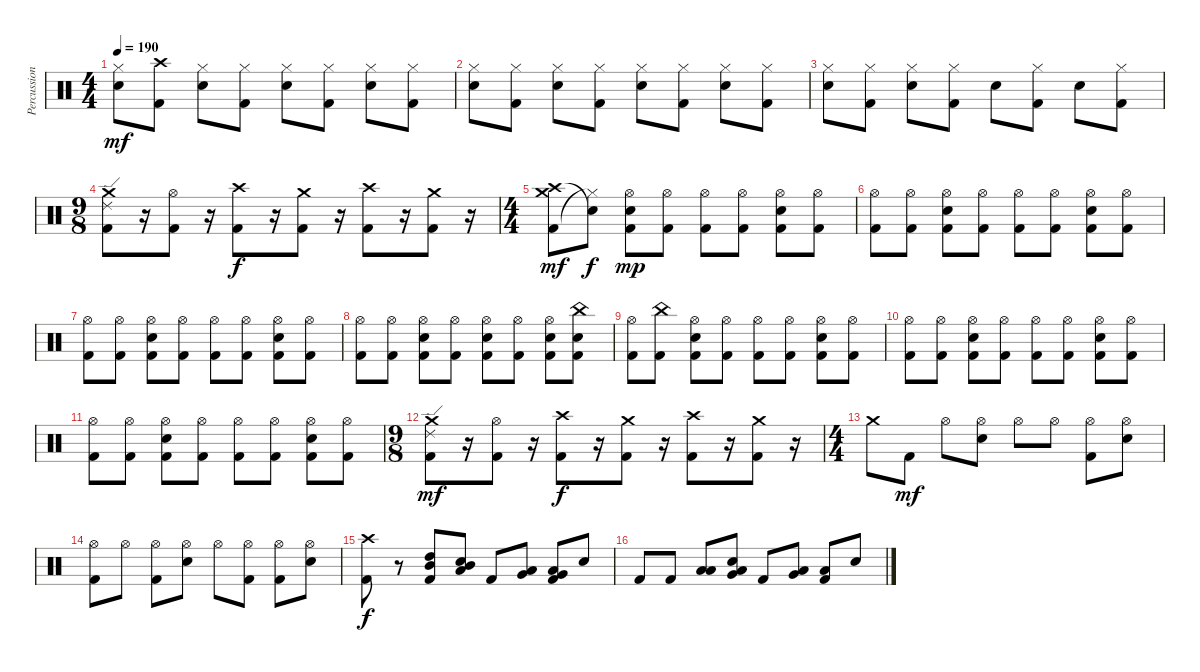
\track ("Percussion" "Percussion") {instrument percussion}
\staff {score}
\articulation defaults
\ts (4 4)
\tempo 190
\clef neutral
\ks c
("Snare (hit) 2" "Hi-Hat (closed)").8{dy mf} ("Kick (hit) 2" "Crash high (hit)").8 ("Snare (hit) 2" "Hi-Hat (closed)").8 ("Kick (hit) 2" "Hi-Hat (closed)").8 ("Snare (hit) 2" "Hi-Hat (closed)").8 ("Kick (hit) 2" "Hi-Hat (closed)").8 ("Snare (hit) 2" "Hi-Hat (closed)").8 ("Kick (hit) 2" "Hi-Hat (closed)").8 |
("Snare (hit) 2" "Hi-Hat (closed)").8 ("Kick (hit) 2" "Hi-Hat (closed)").8 ("Snare (hit) 2" "Hi-Hat (closed)").8 ("Kick (hit) 2" "Hi-Hat (closed)").8 ("Snare (hit) 2" "Hi-Hat (closed)").8 ("Kick (hit) 2" "Hi-Hat (closed)").8 ("Snare (hit) 2" "Hi-Hat (closed)").8 ("Kick (hit) 2" "Hi-Hat (closed)").8 |
("Snare (hit) 2" "Hi-Hat (closed)").8 ("Kick (hit) 2" "Hi-Hat (closed)").8 ("Snare (hit) 2" "Hi-Hat (closed)").8 ("Kick (hit) 2" "Hi-Hat (closed)").8 "Snare (hit) 2".8 ("Kick (hit) 2" "Hi-Hat (closed)").8 "Snare (hit) 2".8 ("Kick (hit) 2" "Hi-Hat (closed)").8 |
\ts (9 8)
("Kick (hit) 2" "Crash medium (hit)" "Ride (edge) 2").8 r.16 ("Kick (hit) 2" "Hi-Hat (open)").8 r.16 ("Kick (hit) 2" "Crash high (hit)").8{dy f} r.16 ("Kick (hit) 2" "Crash medium (hit)").8 r.16 ("Kick (hit) 2" "Crash high (hit)").8 r.16 ("Kick (hit) 2" "Crash medium (hit)").8 r.16 |
\ts (4 4)
("Kick (hit) 2" "Crash high (hit)" "Crash medium (hit)").8{dy mf} ("Hi-Hat (closed)"{t} "Snare (hit)"{t}).8{dy f} ("Kick (hit) 2" "Snare (hit) 2" "Hi-Hat (open)").8{dy mp} ("Kick (hit) 2" "Hi-Hat (open)").8 ("Kick (hit) 2" "Hi-Hat (open)").8 ("Kick (hit) 2" "Hi-Hat (open)").8 ("Kick (hit) 2" "Snare (hit) 2" "Hi-Hat (open)").8 ("Kick (hit) 2" "Hi-Hat (open)").8 |
("Kick (hit) 2" "Hi-Hat (open)").8 ("Kick (hit) 2" "Hi-Hat (open)").8 ("Kick (hit) 2" "Snare (hit) 2" "Hi-Hat (open)").8 ("Kick (hit) 2" "Hi-Hat (open)").8 ("Kick (hit) 2" "Hi-Hat (open)").8 ("Kick (hit) 2" "Hi-Hat (open)").8 ("Kick (hit) 2" "Snare (hit) 2" "Hi-Hat (open)").8 ("Kick (hit) 2" "Hi-Hat (open)").8 |
("Kick (hit) 2" "Hi-Hat (open)").8 ("Kick (hit) 2" "Hi-Hat (open)").8 ("Kick (hit) 2" "Snare (hit) 2" "Hi-Hat (open)").8 ("Kick (hit) 2" "Hi-Hat (open)").8 ("Kick (hit) 2" "Hi-Hat (open)").8 ("Kick (hit) 2" "Hi-Hat (open)").8 ("Kick (hit) 2" "Snare (hit) 2" "Hi-Hat (open)").8 ("Kick (hit) 2" "Hi-Hat (open)").8 |
("Kick (hit) 2" "Hi-Hat (open)").8 ("Kick (hit) 2" "Hi-Hat (open)").8 ("Kick (hit) 2" "Snare (hit) 2" "Hi-Hat (open)").8 ("Kick (hit) 2" "Hi-Hat (open)").8 ("Kick (hit) 2" "Snare (hit) 2" "Hi-Hat (open)").8 ("Kick (hit) 2" "Hi-Hat (open)").8 ("Kick (hit) 2" "Snare (hit) 2" "Hi-Hat (open)").8 ("Kick (hit) 2" "Snare (hit) 2" "China (hit)").8 |
("Kick (hit) 2" "Hi-Hat (open)").8 ("Kick (hit) 2" "China (hit)").8 ("Kick (hit) 2" "Snare (hit) 2" "Hi-Hat (open)").8 ("Kick (hit) 2" "Hi-Hat (open)").8 ("Kick (hit) 2" "Hi-Hat (open)").8 ("Kick (hit) 2" "Hi-Hat (open)").8 ("Kick (hit) 2" "Snare (hit) 2" "Hi-Hat (open)").8 ("Kick (hit) 2" "Hi-Hat (open)").8 |
("Kick (hit) 2" "Hi-Hat (open)").8 ("Kick (hit) 2" "Hi-Hat (open)").8 ("Kick (hit) 2" "Snare (hit) 2" "Hi-Hat (open)").8 ("Kick (hit) 2" "Hi-Hat (open)").8 ("Kick (hit) 2" "Hi-Hat (open)").8 ("Kick (hit) 2" "Hi-Hat (open)").8 ("Kick (hit) 2" "Snare (hit) 2" "Hi-Hat (open)").8 ("Kick (hit) 2" "Hi-Hat (open)").8 |
("Kick (hit) 2" "Hi-Hat (open)").8 ("Kick (hit) 2" "Hi-Hat (open)").8 ("Kick (hit) 2" "Snare (hit) 2" "Hi-Hat (open)").8 ("Kick (hit) 2" "Hi-Hat (open)").8 ("Kick (hit) 2" "Hi-Hat (open)").8 ("Kick (hit) 2" "Hi-Hat (open)").8 ("Kick (hit) 2" "Snare (hit) 2" "Hi-Hat (open)").8 ("Kick (hit) 2" "Hi-Hat (open)").8 |
\ts (9 8)
("Kick (hit) 2" "Crash medium (hit)" "Ride (edge) 2").8{dy mf} r.16 ("Kick (hit) 2" "Hi-Hat (open)").8 r.16 ("Kick (hit) 2" "Crash high (hit)").8{dy f} r.16 ("Kick (hit) 2" "Crash medium (hit)").8 r.16 ("Kick (hit) 2" "Crash high (hit)").8 r.16 ("Kick (hit) 2" "Crash medium (hit)").8 r.16 |
\ts (4 4)
"Crash medium (hit)".8 "Kick (hit) 2".8{dy mf} "Hi-Hat (open)".8 ("Snare (hit) 2" "Hi-Hat (open)").8 "Hi-Hat (open)".8 "Hi-Hat (open)".8 ("Kick (hit) 2" "Hi-Hat (open)").8 ("Snare (hit) 2" "Hi-Hat (open)").8 |
("Kick (hit) 2" "Hi-Hat (open)").8 "Hi-Hat (open)".8 ("Kick (hit) 2" "Hi-Hat (open)").8 ("Snare (hit) 2" "Hi-Hat (open)").8 "Hi-Hat (open)".8 ("Kick (hit) 2" "Hi-Hat (open)").8 ("Kick (hit) 2" "Hi-Hat (open)").8 ("Snare (hit) 2" "Hi-Hat (open)").8 |
("Kick (hit) 2" "Crash high (hit)").8{dy f} r.8 ("Kick (hit) 2" "Mid Tom (hit)" "High Tom (hit)").8 ("Low Tom (hit)" "Mid Tom (hit)" "Snare (hit) 2").8 "Kick (hit) 2".8 ("Very Low Tom (hit)" "Low Tom (hit)").8 ("Kick (hit) 2" "Low Floor Tom (hit)" "Very Low Tom (hit)").8 "Snare (hit) 2".8 |
"Kick (hit) 2".8 "Kick (hit) 2".8 ("Low Tom (hit)" "Low Floor Tom (hit)").8 ("Very Low Tom (hit)" "Low Tom (hit)" "Snare (hit) 2").8 "Kick (hit) 2".8 ("Low Floor Tom (hit)" "Very Low Tom (hit)").8 ("Kick (hit) 2" "Low Floor Tom (hit)").8 "Snare (hit) 2".8
